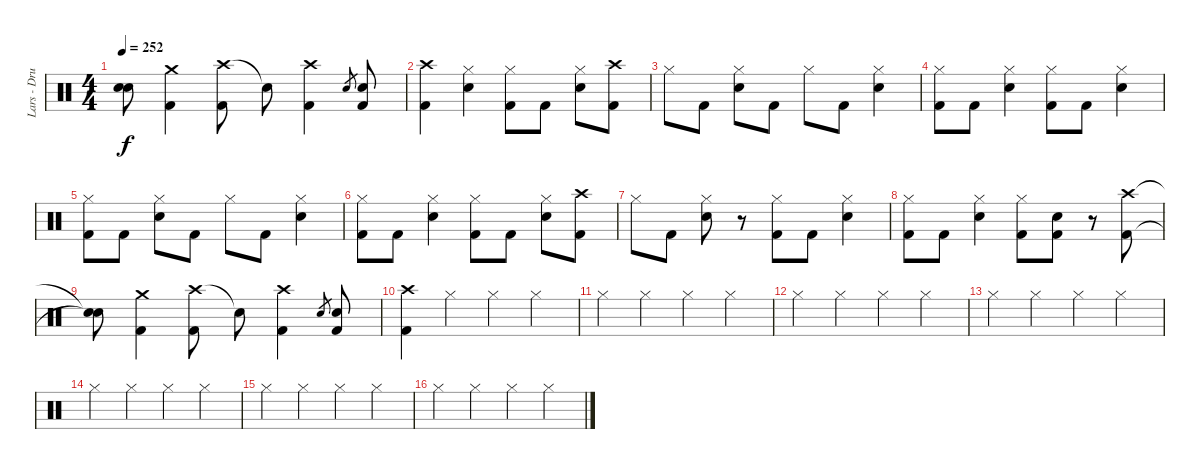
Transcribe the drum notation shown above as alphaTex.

\track ("Lars - Drums" "Lars - Dru") {instrument percussion}
\staff {score}
\articulation defaults
\ts (4 4)
\tempo 252
\clef neutral
\ks c
("Snare (hit)"{t} "Snare (hit)"{t}).8{dy f} ("Crash medium (hit)" "Kick (hit) 2").4 ("Crash high (hit)" "Kick (hit) 2").8 "Snare (hit)"{t}.8 ("Crash high (hit)" "Kick (hit) 2").4 "Electric Snare (hit)".8{gr} ("Electric Snare (hit)" "Kick (hit) 2").8 |
("Crash high (hit)" "Kick (hit) 2").4 ("Hi-Hat (closed)" "Electric Snare (hit)").4 ("Hi-Hat (closed)" "Kick (hit) 2").8 "Kick (hit) 2".8 ("Hi-Hat (closed)" "Electric Snare (hit)").8 ("Crash high (hit)" "Kick (hit) 2").8 |
"Hi-Hat (closed)".8 "Kick (hit) 2".8 ("Hi-Hat (closed)" "Electric Snare (hit)").8 "Kick (hit) 2".8 "Hi-Hat (closed)".8 "Kick (hit) 2".8 ("Hi-Hat (closed)" "Electric Snare (hit)").4 |
("Hi-Hat (closed)" "Kick (hit) 2").8 "Kick (hit) 2".8 ("Hi-Hat (closed)" "Electric Snare (hit)").4 ("Hi-Hat (closed)" "Kick (hit) 2").8 "Kick (hit) 2".8 ("Hi-Hat (closed)" "Electric Snare (hit)").4 |
("Hi-Hat (closed)" "Kick (hit) 2").8 "Kick (hit) 2".8 ("Hi-Hat (closed)" "Electric Snare (hit)").8 "Kick (hit) 2".8 "Hi-Hat (closed)".8 "Kick (hit) 2".8 ("Hi-Hat (closed)" "Electric Snare (hit)").4 |
("Hi-Hat (closed)" "Kick (hit) 2").8 "Kick (hit) 2".8 ("Hi-Hat (closed)" "Electric Snare (hit)").4 ("Hi-Hat (closed)" "Kick (hit) 2").8 "Kick (hit) 2".8 ("Hi-Hat (closed)" "Electric Snare (hit)").8 ("Crash high (hit)" "Kick (hit) 2").8 |
"Hi-Hat (closed)".8 "Kick (hit) 2".8 ("Hi-Hat (closed)" "Electric Snare (hit)").8 r.8 ("Hi-Hat (closed)" "Kick (hit) 2").8 "Kick (hit) 2".8 ("Hi-Hat (closed)" "Electric Snare (hit)").4 |
("Hi-Hat (closed)" "Kick (hit) 2").8 "Kick (hit) 2".8 ("Hi-Hat (closed)" "Electric Snare (hit)").4 ("Hi-Hat (closed)" "Kick (hit) 2").8 ("Electric Snare (hit)" "Kick (hit) 2").8 r.8 ("Crash high (hit)" "Kick (hit) 2").8 |
("Snare (hit)"{t} "Snare (hit)"{t}).8 ("Crash medium (hit)" "Kick (hit) 2").4 ("Crash high (hit)" "Kick (hit) 2").8 "Snare (hit)"{t}.8 ("Crash high (hit)" "Kick (hit) 2").4 "Electric Snare (hit)".8{gr} ("Electric Snare (hit)" "Kick (hit) 2").8 |
("Crash high (hit)" "Kick (hit) 2").4 "Hi-Hat (closed)".4 "Hi-Hat (closed)".4 "Hi-Hat (closed)".4 |
"Hi-Hat (closed)".4 "Hi-Hat (closed)".4 "Hi-Hat (closed)".4 "Hi-Hat (closed)".4 |
"Hi-Hat (closed)".4 "Hi-Hat (closed)".4 "Hi-Hat (closed)".4 "Hi-Hat (closed)".4 |
"Hi-Hat (closed)".4 "Hi-Hat (closed)".4 "Hi-Hat (closed)".4 "Hi-Hat (closed)".4 |
"Hi-Hat (closed)".4 "Hi-Hat (closed)".4 "Hi-Hat (closed)".4 "Hi-Hat (closed)".4 |
"Hi-Hat (closed)".4 "Hi-Hat (closed)".4 "Hi-Hat (closed)".4 "Hi-Hat (closed)".4 |
"Hi-Hat (closed)".4 "Hi-Hat (closed)".4 "Hi-Hat (closed)".4 "Hi-Hat (closed)".4
